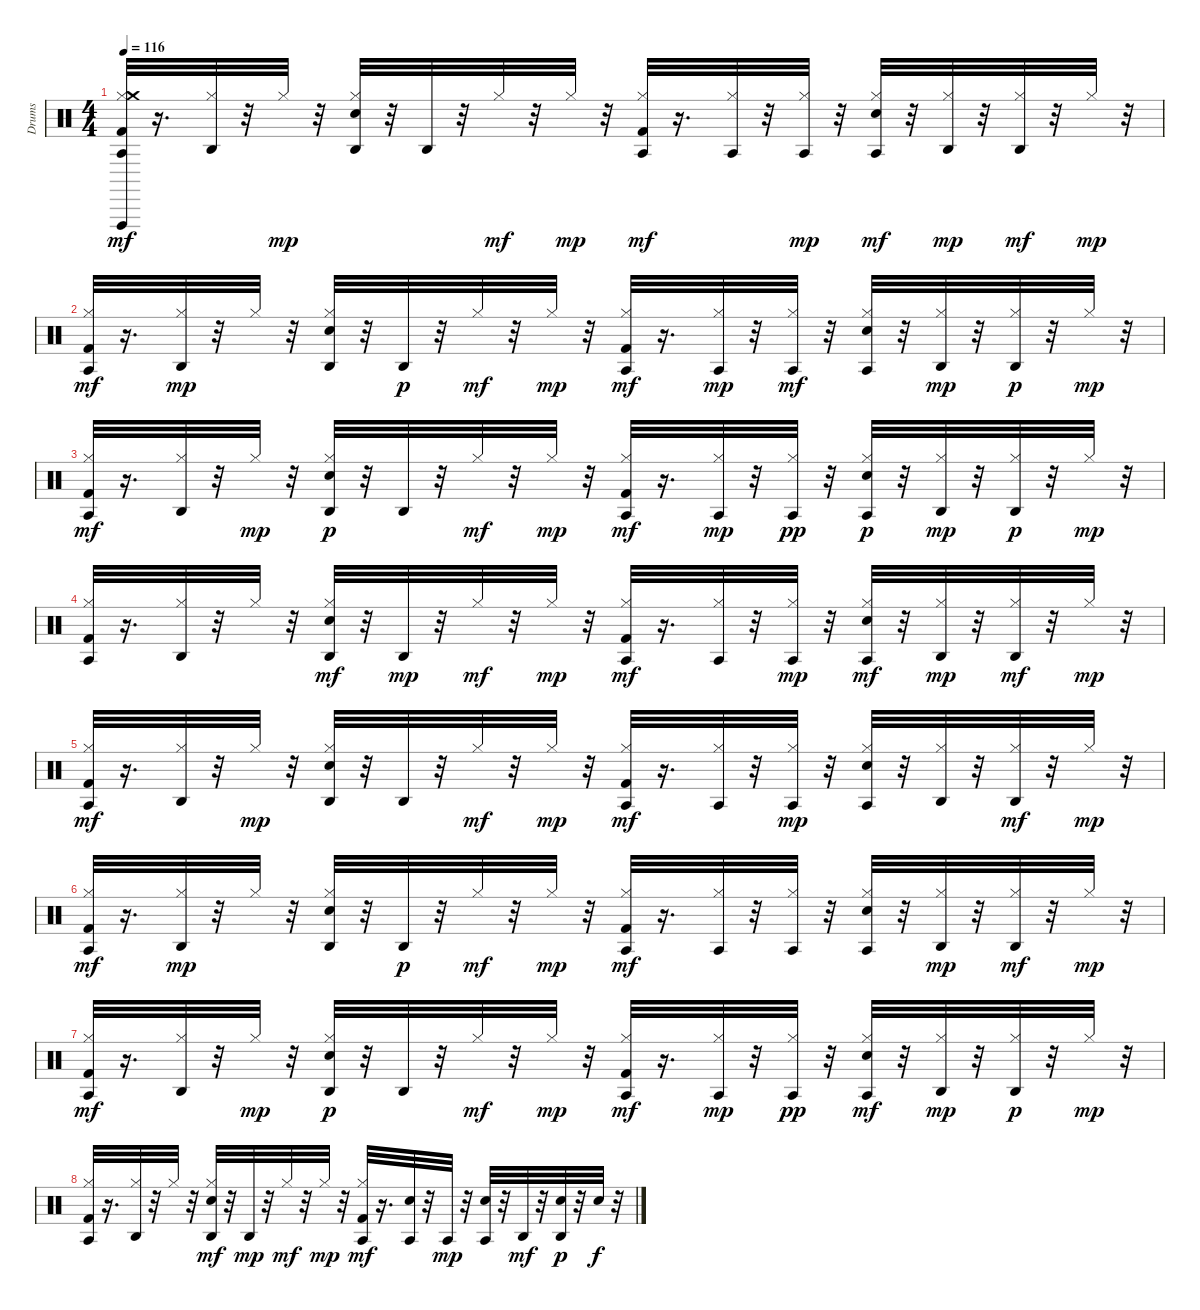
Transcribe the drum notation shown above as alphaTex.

\track ("Drums" "Drums") {instrument percussion}
\staff {score}
\articulation defaults
\ts (4 4)
\tempo 116
\clef neutral
\ks c
("Agogo tow (hit)" "Kick (hit) 2" "Hi-Hat (closed)" "Vibraslap (hit)" "Crash medium (hit)").32{dy mf} r.16{d} ("Agogo high (hit)" "Hi-Hat (closed)").32 r.32 "Hi-Hat (closed)".32{dy mp} r.32 ("Hi-Hat (closed)" "Agogo high (hit)" "Snare (hit) 2").32 r.32 "Agogo high (hit)".32 r.32 "Hi-Hat (closed)".32{dy mf} r.32 "Hi-Hat (closed)".32{dy mp} r.32 ("Agogo tow (hit)" "Kick (hit) 2" "Hi-Hat (closed)").32{dy mf} r.16{d} ("Agogo tow (hit)" "Hi-Hat (closed)").32 r.32 ("Agogo tow (hit)" "Hi-Hat (closed)").32{dy mp} r.32 ("Agogo tow (hit)" "Snare (hit) 2" "Hi-Hat (closed)").32{dy mf} r.32 ("Agogo high (hit)" "Hi-Hat (closed)").32{dy mp} r.32 ("Agogo high (hit)" "Hi-Hat (closed)").32{dy mf} r.32 "Hi-Hat (closed)".32{dy mp} r.32 |
("Hi-Hat (closed)" "Kick (hit) 2" "Agogo tow (hit)").32{dy mf} r.16{d} ("Hi-Hat (closed)" "Agogo high (hit)").32{dy mp} r.32 "Hi-Hat (closed)".32 r.32 ("Hi-Hat (closed)" "Snare (hit) 2" "Agogo high (hit)").32 r.32 "Agogo high (hit)".32{dy p} r.32 "Hi-Hat (closed)".32{dy mf} r.32 "Hi-Hat (closed)".32{dy mp} r.32 ("Kick (hit) 2" "Agogo tow (hit)" "Hi-Hat (closed)").32{dy mf} r.16{d} ("Hi-Hat (closed)" "Agogo tow (hit)").32{dy mp} r.32 ("Hi-Hat (closed)" "Agogo tow (hit)").32{dy mf} r.32 ("Snare (hit) 2" "Hi-Hat (closed)" "Agogo tow (hit)").32 r.32 ("Agogo high (hit)" "Hi-Hat (closed)").32{dy mp} r.32 ("Hi-Hat (closed)" "Agogo high (hit)").32{dy p} r.32 "Hi-Hat (closed)".32{dy mp} r.32 |
("Hi-Hat (closed)" "Agogo tow (hit)" "Kick (hit) 2").32{dy mf} r.16{d} ("Agogo high (hit)" "Hi-Hat (closed)").32 r.32 "Hi-Hat (closed)".32{dy mp} r.32 ("Snare (hit) 2" "Hi-Hat (closed)" "Agogo high (hit)").32{dy p} r.32 "Agogo high (hit)".32 r.32 "Hi-Hat (closed)".32{dy mf} r.32 "Hi-Hat (closed)".32{dy mp} r.32 ("Agogo tow (hit)" "Hi-Hat (closed)" "Kick (hit) 2").32{dy mf} r.16{d} ("Hi-Hat (closed)" "Agogo tow (hit)").32{dy mp} r.32 ("Hi-Hat (closed)" "Agogo tow (hit)").32{dy pp} r.32 ("Snare (hit) 2" "Hi-Hat (closed)" "Agogo tow (hit)").32{dy p} r.32 ("Agogo high (hit)" "Hi-Hat (closed)").32{dy mp} r.32 ("Hi-Hat (closed)" "Agogo high (hit)").32{dy p} r.32 "Hi-Hat (closed)".32{dy mp} r.32 |
("Kick (hit) 2" "Hi-Hat (closed)" "Agogo tow (hit)").32 r.16{d} ("Hi-Hat (closed)" "Agogo high (hit)").32 r.32 "Hi-Hat (closed)".32 r.32 ("Hi-Hat (closed)" "Agogo high (hit)" "Snare (hit) 2").32{dy mf} r.32 "Agogo high (hit)".32{dy mp} r.32 "Hi-Hat (closed)".32{dy mf} r.32 "Hi-Hat (closed)".32{dy mp} r.32 ("Hi-Hat (closed)" "Kick (hit) 2" "Agogo tow (hit)").32{dy mf} r.16{d} ("Hi-Hat (closed)" "Agogo tow (hit)").32 r.32 ("Hi-Hat (closed)" "Agogo tow (hit)").32{dy mp} r.32 ("Agogo tow (hit)" "Snare (hit) 2" "Hi-Hat (closed)").32{dy mf} r.32 ("Agogo high (hit)" "Hi-Hat (closed)").32{dy mp} r.32 ("Agogo high (hit)" "Hi-Hat (closed)").32{dy mf} r.32 "Hi-Hat (closed)".32{dy mp} r.32 |
("Agogo tow (hit)" "Kick (hit) 2" "Hi-Hat (closed)").32{dy mf} r.16{d} ("Agogo high (hit)" "Hi-Hat (closed)").32 r.32 "Hi-Hat (closed)".32{dy mp} r.32 ("Hi-Hat (closed)" "Agogo high (hit)" "Snare (hit) 2").32 r.32 "Agogo high (hit)".32 r.32 "Hi-Hat (closed)".32{dy mf} r.32 "Hi-Hat (closed)".32{dy mp} r.32 ("Hi-Hat (closed)" "Agogo tow (hit)" "Kick (hit) 2").32{dy mf} r.16{d} ("Agogo tow (hit)" "Hi-Hat (closed)").32 r.32 ("Agogo tow (hit)" "Hi-Hat (closed)").32{dy mp} r.32 ("Hi-Hat (closed)" "Agogo tow (hit)" "Snare (hit) 2").32 r.32 ("Agogo high (hit)" "Hi-Hat (closed)").32 r.32 ("Agogo high (hit)" "Hi-Hat (closed)").32{dy mf} r.32 "Hi-Hat (closed)".32{dy mp} r.32 |
("Hi-Hat (closed)" "Agogo tow (hit)" "Kick (hit) 2").32{dy mf} r.16{d} ("Hi-Hat (closed)" "Agogo high (hit)").32{dy mp} r.32 "Hi-Hat (closed)".32 r.32 ("Snare (hit) 2" "Hi-Hat (closed)" "Agogo high (hit)").32 r.32 "Agogo high (hit)".32{dy p} r.32 "Hi-Hat (closed)".32{dy mf} r.32 "Hi-Hat (closed)".32{dy mp} r.32 ("Kick (hit) 2" "Hi-Hat (closed)" "Agogo tow (hit)").32{dy mf} r.16{d} ("Agogo tow (hit)" "Hi-Hat (closed)").32 r.32 ("Hi-Hat (closed)" "Agogo tow (hit)").32 r.32 ("Agogo tow (hit)" "Hi-Hat (closed)" "Snare (hit) 2").32 r.32 ("Agogo high (hit)" "Hi-Hat (closed)").32{dy mp} r.32 ("Agogo high (hit)" "Hi-Hat (closed)").32{dy mf} r.32 "Hi-Hat (closed)".32{dy mp} r.32 |
("Kick (hit) 2" "Agogo tow (hit)" "Hi-Hat (closed)").32{dy mf} r.16{d} ("Agogo high (hit)" "Hi-Hat (closed)").32 r.32 "Hi-Hat (closed)".32{dy mp} r.32 ("Snare (hit) 2" "Hi-Hat (closed)" "Agogo high (hit)").32{dy p} r.32 "Agogo high (hit)".32 r.32 "Hi-Hat (closed)".32{dy mf} r.32 "Hi-Hat (closed)".32{dy mp} r.32 ("Hi-Hat (closed)" "Agogo tow (hit)" "Kick (hit) 2").32{dy mf} r.16{d} ("Hi-Hat (closed)" "Agogo tow (hit)").32{dy mp} r.32 ("Hi-Hat (closed)" "Agogo tow (hit)").32{dy pp} r.32 ("Snare (hit) 2" "Agogo tow (hit)" "Hi-Hat (closed)").32{dy mf} r.32 ("Agogo high (hit)" "Hi-Hat (closed)").32{dy mp} r.32 ("Hi-Hat (closed)" "Agogo high (hit)").32{dy p} r.32 "Hi-Hat (closed)".32{dy mp} r.32 |
("Kick (hit) 2" "Hi-Hat (closed)" "Agogo tow (hit)").32 r.16{d} ("Hi-Hat (closed)" "Agogo high (hit)").32 r.32 "Hi-Hat (closed)".32 r.32 ("Agogo high (hit)" "Hi-Hat (closed)" "Snare (hit) 2").32{dy mf} r.32 "Agogo high (hit)".32{dy mp} r.32 "Hi-Hat (closed)".32{dy mf} r.32 "Hi-Hat (closed)".32{dy mp} r.32 ("Kick (hit) 2" "Hi-Hat (closed)" "Agogo tow (hit)").32{dy mf} r.16{d} ("Agogo tow (hit)" "Snare (hit) 2").32 r.32 "Agogo tow (hit)".32{dy mp} r.32 ("Agogo tow (hit)" "Snare (hit) 2").32 r.32 "Agogo high (hit)".32{dy mf} r.32 ("Snare (hit) 2" "Agogo high (hit)").32{dy p} r.32 "Snare (hit) 2".32{dy f} r.32
